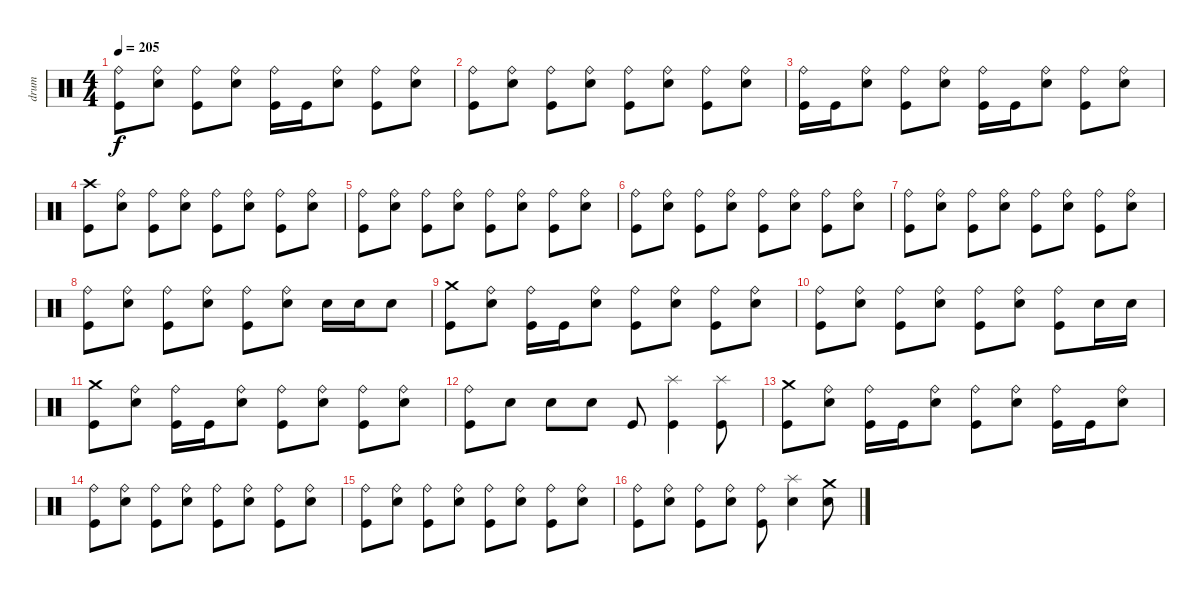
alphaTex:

\track ("drum" "drum") {instrument percussion}
\staff {score}
\articulation defaults
\ts (4 4)
\tempo 205
\clef neutral
\ks c
("Kick (hit)" "Ride (bell)").8{dy f} ("Electric Snare (hit)" "Ride (bell)").8 ("Kick (hit)" "Ride (bell)").8 ("Electric Snare (hit)" "Ride (bell)").8 ("Kick (hit)" "Ride (bell)").16 "Kick (hit)".16 ("Electric Snare (hit)" "Ride (bell)").8 ("Kick (hit)" "Ride (bell)").8 ("Electric Snare (hit)" "Ride (bell)").8 |
("Kick (hit)" "Ride (bell)").8 ("Electric Snare (hit)" "Ride (bell)").8 ("Kick (hit)" "Ride (bell)").8 ("Electric Snare (hit)" "Ride (bell)").8 ("Kick (hit)" "Ride (bell)").8 ("Electric Snare (hit)" "Ride (bell)").8 ("Kick (hit)" "Ride (bell)").8 ("Electric Snare (hit)" "Ride (bell)").8 |
("Kick (hit)" "Ride (bell)").16 "Kick (hit)".16 ("Electric Snare (hit)" "Ride (bell)").8 ("Kick (hit)" "Ride (bell)").8 ("Electric Snare (hit)" "Ride (bell)").8 ("Kick (hit)" "Ride (bell)").16 "Kick (hit)".16 ("Electric Snare (hit)" "Ride (bell)").8 ("Kick (hit)" "Ride (bell)").8 ("Electric Snare (hit)" "Ride (bell)").8 |
("Kick (hit)" "Crash high (hit)").8 ("Electric Snare (hit)" "Ride (bell)").8 ("Kick (hit)" "Ride (bell)").8 ("Electric Snare (hit)" "Ride (bell)").8 ("Kick (hit)" "Ride (bell)").8 ("Electric Snare (hit)" "Ride (bell)").8 ("Kick (hit)" "Ride (bell)").8 ("Electric Snare (hit)" "Ride (bell)").8 |
("Kick (hit)" "Ride (bell)").8 ("Electric Snare (hit)" "Ride (bell)").8 ("Kick (hit)" "Ride (bell)").8 ("Electric Snare (hit)" "Ride (bell)").8 ("Kick (hit)" "Ride (bell)").8 ("Electric Snare (hit)" "Ride (bell)").8 ("Kick (hit)" "Ride (bell)").8 ("Electric Snare (hit)" "Ride (bell)").8 |
("Kick (hit)" "Ride (bell)").8 ("Electric Snare (hit)" "Ride (bell)").8 ("Kick (hit)" "Ride (bell)").8 ("Electric Snare (hit)" "Ride (bell)").8 ("Kick (hit)" "Ride (bell)").8 ("Electric Snare (hit)" "Ride (bell)").8 ("Kick (hit)" "Ride (bell)").8 ("Electric Snare (hit)" "Ride (bell)").8 |
("Kick (hit)" "Ride (bell)").8 ("Electric Snare (hit)" "Ride (bell)").8 ("Kick (hit)" "Ride (bell)").8 ("Electric Snare (hit)" "Ride (bell)").8 ("Kick (hit)" "Ride (bell)").8 ("Electric Snare (hit)" "Ride (bell)").8 ("Kick (hit)" "Ride (bell)").8 ("Electric Snare (hit)" "Ride (bell)").8 |
("Kick (hit)" "Ride (bell)").8 ("Electric Snare (hit)" "Ride (bell)").8 ("Kick (hit)" "Ride (bell)").8 ("Electric Snare (hit)" "Ride (bell)").8 ("Kick (hit)" "Ride (bell)").8 ("Electric Snare (hit)" "Ride (bell)").8 "Electric Snare (hit)".16 "Electric Snare (hit)".16 "Electric Snare (hit)".8 |
("Kick (hit)" "Crash medium (hit)").8 ("Electric Snare (hit)" "Ride (bell)").8 ("Kick (hit)" "Ride (bell)").16 "Kick (hit)".16 ("Electric Snare (hit)" "Ride (bell)").8 ("Kick (hit)" "Ride (bell)").8 ("Electric Snare (hit)" "Ride (bell)").8 ("Kick (hit)" "Ride (bell)").8 ("Electric Snare (hit)" "Ride (bell)").8 |
("Kick (hit)" "Ride (bell)").8 ("Electric Snare (hit)" "Ride (bell)").8 ("Kick (hit)" "Ride (bell)").8 ("Electric Snare (hit)" "Ride (bell)").8 ("Kick (hit)" "Ride (bell)").8 ("Electric Snare (hit)" "Ride (bell)").8 ("Kick (hit)" "Ride (bell)").8 "Electric Snare (hit)".16 "Electric Snare (hit)".16 |
("Kick (hit)" "Crash medium (hit)").8 ("Electric Snare (hit)" "Ride (bell)").8 ("Kick (hit)" "Ride (bell)").16 "Kick (hit)".16 ("Electric Snare (hit)" "Ride (bell)").8 ("Kick (hit)" "Ride (bell)").8 ("Electric Snare (hit)" "Ride (bell)").8 ("Kick (hit)" "Ride (bell)").8 ("Electric Snare (hit)" "Ride (bell)").8 |
("Kick (hit)" "Ride (bell)").8 "Electric Snare (hit)".8 "Electric Snare (hit)".8 "Electric Snare (hit)".8 "Kick (hit)".8 ("Kick (hit)" "Splash (hit)").4 ("Kick (hit)" "Splash (hit)").8 |
("Kick (hit)" "Crash medium (hit)").8 ("Electric Snare (hit)" "Ride (bell)").8 ("Kick (hit)" "Ride (bell)").16 "Kick (hit)".16 ("Electric Snare (hit)" "Ride (bell)").8 ("Kick (hit)" "Ride (bell)").8 ("Electric Snare (hit)" "Ride (bell)").8 ("Kick (hit)" "Ride (bell)").16 "Kick (hit)".16 ("Electric Snare (hit)" "Ride (bell)").8 |
("Kick (hit)" "Ride (bell)").8 ("Electric Snare (hit)" "Ride (bell)").8 ("Kick (hit)" "Ride (bell)").8 ("Electric Snare (hit)" "Ride (bell)").8 ("Kick (hit)" "Ride (bell)").8 ("Electric Snare (hit)" "Ride (bell)").8 ("Kick (hit)" "Ride (bell)").8 ("Electric Snare (hit)" "Ride (bell)").8 |
("Kick (hit)" "Ride (bell)").8 ("Electric Snare (hit)" "Ride (bell)").8 ("Kick (hit)" "Ride (bell)").8 ("Electric Snare (hit)" "Ride (bell)").8 ("Kick (hit)" "Ride (bell)").8 ("Electric Snare (hit)" "Ride (bell)").8 ("Kick (hit)" "Ride (bell)").8 ("Electric Snare (hit)" "Ride (bell)").8 |
("Kick (hit)" "Ride (bell)").8 ("Electric Snare (hit)" "Ride (bell)").8 ("Kick (hit)" "Ride (bell)").8 ("Electric Snare (hit)" "Ride (bell)").8 ("Kick (hit)" "Ride (bell)").8 ("Electric Snare (hit)" "Splash (hit)").4 ("Electric Snare (hit)" "Crash medium (hit)").8
